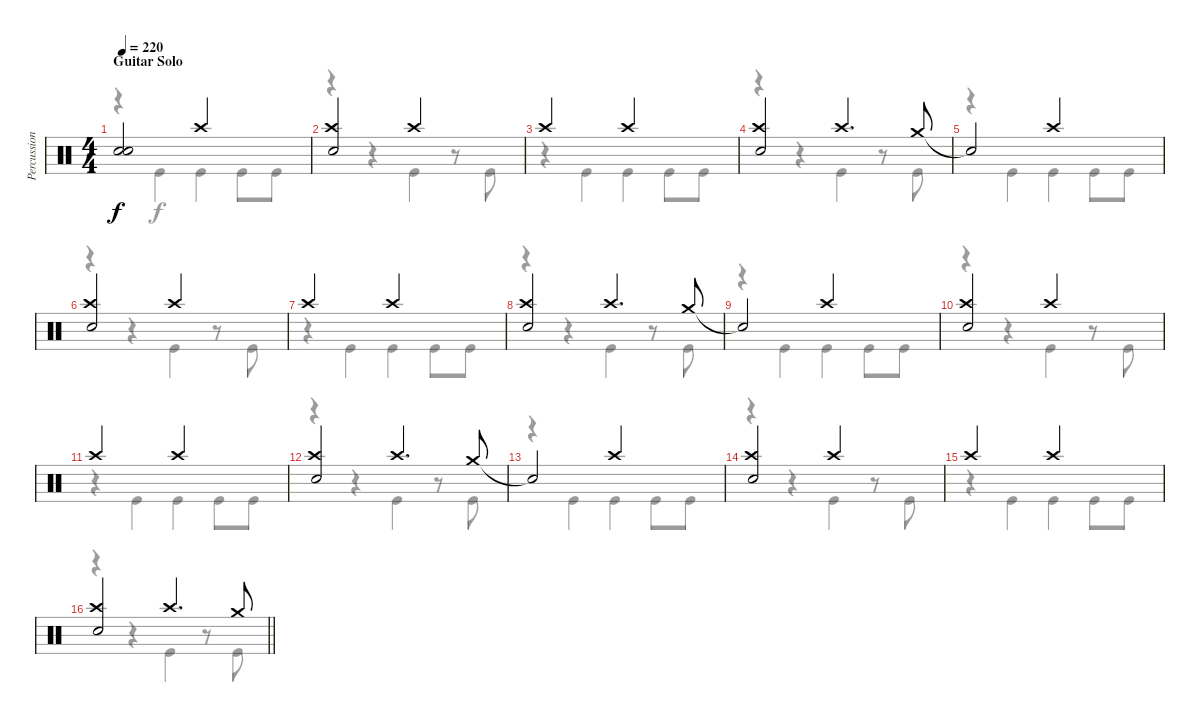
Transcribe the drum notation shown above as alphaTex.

\track ("Percussion" "Percussion") {instrument percussion}
\staff {score}
\articulation defaults
\voice
\ts (4 4)
\section ("" "Guitar Solo")
\tempo 220
\clef neutral
\ks c
("Snare (hit)"{t} "Snare (hit)"{t}).2{dy f} "Crash high (hit)".2 |
("Crash high (hit)" "Electric Snare (hit)").2 "Crash high (hit)".2 |
"Crash high (hit)".2 "Crash high (hit)".2 |
("Crash high (hit)" "Electric Snare (hit)").2 "Crash high (hit)".4{d} "Crash medium (hit)".8 |
"Snare (hit)"{t}.2 "Crash high (hit)".2 |
("Crash high (hit)" "Electric Snare (hit)").2 "Crash high (hit)".2 |
"Crash high (hit)".2 "Crash high (hit)".2 |
("Crash high (hit)" "Electric Snare (hit)").2 "Crash high (hit)".4{d} "Crash medium (hit)".8 |
"Snare (hit)"{t}.2 "Crash high (hit)".2 |
("Crash high (hit)" "Electric Snare (hit)").2 "Crash high (hit)".2 |
"Crash high (hit)".2 "Crash high (hit)".2 |
("Crash high (hit)" "Electric Snare (hit)").2 "Crash high (hit)".4{d} "Crash medium (hit)".8 |
"Snare (hit)"{t}.2 "Crash high (hit)".2 |
("Crash high (hit)" "Electric Snare (hit)").2 "Crash high (hit)".2 |
"Crash high (hit)".2 "Crash high (hit)".2 |
\barLineRight lightlight
("Crash high (hit)" "Electric Snare (hit)").2 "Crash high (hit)".4{d} "Crash medium (hit)".8
\voice
\clef neutral
\ottava regular
\simile none
\ks c
r.4{dy f} "Kick (hit)".4 "Kick (hit)".4 "Kick (hit)".8 "Kick (hit)".8 |
r.4 r.4 "Kick (hit)".4 r.8 "Kick (hit)".8 |
r.4 "Kick (hit)".4 "Kick (hit)".4 "Kick (hit)".8 "Kick (hit)".8 |
r.4 r.4 "Kick (hit)".4 r.8 "Kick (hit)".8 |
r.4 "Kick (hit)".4 "Kick (hit)".4 "Kick (hit)".8 "Kick (hit)".8 |
r.4 r.4 "Kick (hit)".4 r.8 "Kick (hit)".8 |
r.4 "Kick (hit)".4 "Kick (hit)".4 "Kick (hit)".8 "Kick (hit)".8 |
r.4 r.4 "Kick (hit)".4 r.8 "Kick (hit)".8 |
r.4 "Kick (hit)".4 "Kick (hit)".4 "Kick (hit)".8 "Kick (hit)".8 |
r.4 r.4 "Kick (hit)".4 r.8 "Kick (hit)".8 |
r.4 "Kick (hit)".4 "Kick (hit)".4 "Kick (hit)".8 "Kick (hit)".8 |
r.4 r.4 "Kick (hit)".4 r.8 "Kick (hit)".8 |
r.4 "Kick (hit)".4 "Kick (hit)".4 "Kick (hit)".8 "Kick (hit)".8 |
r.4 r.4 "Kick (hit)".4 r.8 "Kick (hit)".8 |
r.4 "Kick (hit)".4 "Kick (hit)".4 "Kick (hit)".8 "Kick (hit)".8 |
\barLineRight lightlight
r.4 r.4 "Kick (hit)".4 r.8 "Kick (hit)".8
